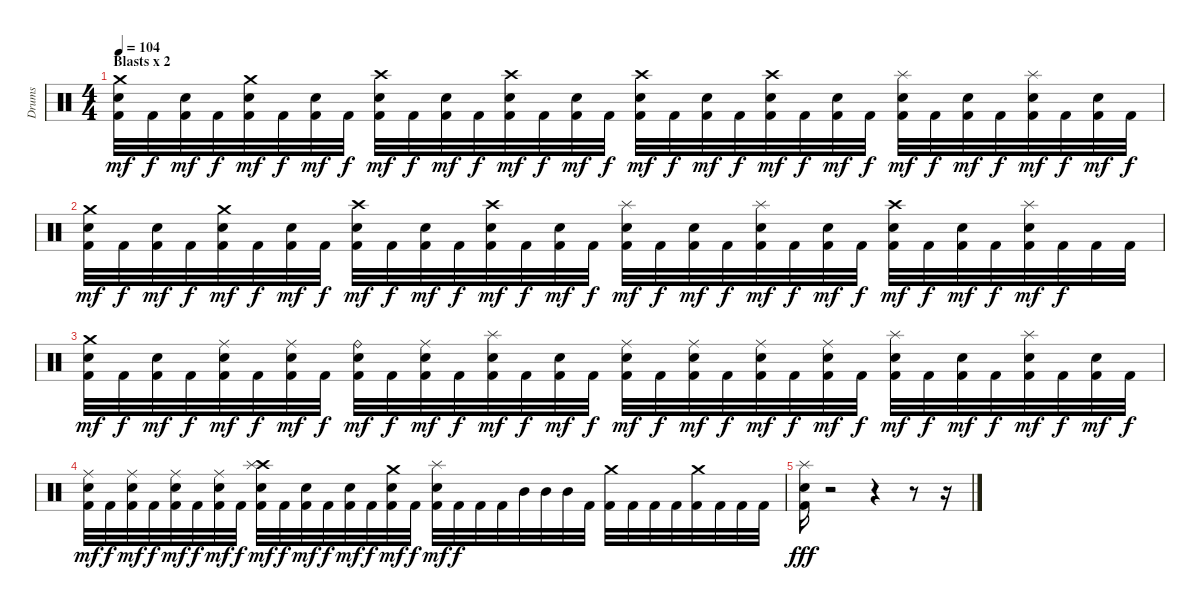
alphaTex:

\track ("Drums" "Drums") {instrument percussion}
\staff {score}
\articulation defaults
\ts (4 4)
\section ("" "Blasts x 2")
\tempo 104
\clef neutral
\ks c
("Crash medium (hit)" "Electric Snare (hit)" "Kick (hit) 2").32{dy mf} "Kick (hit) 2".32{dy f} ("Electric Snare (hit)" "Kick (hit) 2").32{dy mf} "Kick (hit) 2".32{dy f} ("Crash medium (hit)" "Electric Snare (hit)" "Kick (hit) 2").32{dy mf} "Kick (hit) 2".32{dy f} ("Electric Snare (hit)" "Kick (hit) 2").32{dy mf} "Kick (hit) 2".32{dy f} ("Crash high (hit)" "Electric Snare (hit)" "Kick (hit) 2").32{dy mf} "Kick (hit) 2".32{dy f} ("Electric Snare (hit)" "Kick (hit) 2").32{dy mf} "Kick (hit) 2".32{dy f} ("Crash high (hit)" "Electric Snare (hit)" "Kick (hit) 2").32{dy mf} "Kick (hit) 2".32{dy f} ("Electric Snare (hit)" "Kick (hit) 2").32{dy mf} "Kick (hit) 2".32{dy f} ("Crash high (hit)" "Electric Snare (hit)" "Kick (hit) 2").32{dy mf} "Kick (hit) 2".32{dy f} ("Electric Snare (hit)" "Kick (hit) 2").32{dy mf} "Kick (hit) 2".32{dy f} ("Crash high (hit)" "Electric Snare (hit)" "Kick (hit) 2").32{dy mf} "Kick (hit) 2".32{dy f} ("Electric Snare (hit)" "Kick (hit) 2").32{dy mf} "Kick (hit) 2".32{dy f} ("Splash (hit)" "Electric Snare (hit)" "Kick (hit) 2").32{dy mf} "Kick (hit) 2".32{dy f} ("Electric Snare (hit)" "Kick (hit) 2").32{dy mf} "Kick (hit) 2".32{dy f} ("Splash (hit)" "Electric Snare (hit)" "Kick (hit) 2").32{dy mf} "Kick (hit) 2".32{dy f} ("Electric Snare (hit)" "Kick (hit) 2").32{dy mf} "Kick (hit) 2".32{dy f} |
("Crash medium (hit)" "Electric Snare (hit)" "Kick (hit) 2").32{dy mf} "Kick (hit) 2".32{dy f} ("Electric Snare (hit)" "Kick (hit) 2").32{dy mf} "Kick (hit) 2".32{dy f} ("Crash medium (hit)" "Electric Snare (hit)" "Kick (hit) 2").32{dy mf} "Kick (hit) 2".32{dy f} ("Electric Snare (hit)" "Kick (hit) 2").32{dy mf} "Kick (hit) 2".32{dy f} ("Crash high (hit)" "Electric Snare (hit)" "Kick (hit) 2").32{dy mf} "Kick (hit) 2".32{dy f} ("Electric Snare (hit)" "Kick (hit) 2").32{dy mf} "Kick (hit) 2".32{dy f} ("Crash high (hit)" "Electric Snare (hit)" "Kick (hit) 2").32{dy mf} "Kick (hit) 2".32{dy f} ("Electric Snare (hit)" "Kick (hit) 2").32{dy mf} "Kick (hit) 2".32{dy f} ("Splash (hit)" "Electric Snare (hit)" "Kick (hit) 2").32{dy mf} "Kick (hit) 2".32{dy f} ("Electric Snare (hit)" "Kick (hit) 2").32{dy mf} "Kick (hit) 2".32{dy f} ("Splash (hit)" "Electric Snare (hit)" "Kick (hit) 2").32{dy mf} "Kick (hit) 2".32{dy f} ("Electric Snare (hit)" "Kick (hit) 2").32{dy mf} "Kick (hit) 2".32{dy f} ("Crash high (hit)" "Electric Snare (hit)" "Kick (hit) 2").32{dy mf} "Kick (hit) 2".32{dy f} ("Electric Snare (hit)" "Kick (hit) 2").32{dy mf} "Kick (hit) 2".32{dy f} ("Splash (hit)" "Electric Snare (hit)" "Kick (hit) 2").32{dy mf} "Kick (hit) 2".32{dy f} "Kick (hit) 2".32 "Kick (hit) 2".32 |
("Crash medium (hit)" "Electric Snare (hit)" "Kick (hit) 2").32{dy mf} "Kick (hit) 2".32{dy f} ("Electric Snare (hit)" "Kick (hit) 2").32{dy mf} "Kick (hit) 2".32{dy f} ("Ride (middle)" "Electric Snare (hit)" "Kick (hit) 2").32{dy mf} "Kick (hit) 2".32{dy f} ("Ride (middle)" "Electric Snare (hit)" "Kick (hit) 2").32{dy mf} "Kick (hit) 2".32{dy f} ("Ride (bell)" "Electric Snare (hit)" "Kick (hit) 2").32{dy mf} "Kick (hit) 2".32{dy f} ("Ride (middle)" "Electric Snare (hit)" "Kick (hit) 2").32{dy mf} "Kick (hit) 2".32{dy f} ("Splash (hit)" "Electric Snare (hit)" "Kick (hit) 2").32{dy mf} "Kick (hit) 2".32{dy f} ("Electric Snare (hit)" "Kick (hit) 2").32{dy mf} "Kick (hit) 2".32{dy f} ("Ride (middle)" "Electric Snare (hit)" "Kick (hit) 2").32{dy mf} "Kick (hit) 2".32{dy f} ("Ride (middle)" "Electric Snare (hit)" "Kick (hit) 2").32{dy mf} "Kick (hit) 2".32{dy f} ("Ride (middle)" "Electric Snare (hit)" "Kick (hit) 2").32{dy mf} "Kick (hit) 2".32{dy f} ("Ride (middle)" "Electric Snare (hit)" "Kick (hit) 2").32{dy mf} "Kick (hit) 2".32{dy f} ("Splash (hit)" "Electric Snare (hit)" "Kick (hit) 2").32{dy mf} "Kick (hit) 2".32{dy f} ("Electric Snare (hit)" "Kick (hit) 2").32{dy mf} "Kick (hit) 2".32{dy f} ("Splash (hit)" "Electric Snare (hit)" "Kick (hit) 2").32{dy mf} "Kick (hit) 2".32{dy f} ("Electric Snare (hit)" "Kick (hit) 2").32{dy mf} "Kick (hit) 2".32{dy f} |
("Ride (middle)" "Electric Snare (hit)" "Kick (hit) 2").32{dy mf} "Kick (hit) 2".32{dy f} ("Ride (middle)" "Electric Snare (hit)" "Kick (hit) 2").32{dy mf} "Kick (hit) 2".32{dy f} ("Ride (middle)" "Electric Snare (hit)" "Kick (hit) 2").32{dy mf} "Kick (hit) 2".32{dy f} ("Ride (middle)" "Electric Snare (hit)" "Kick (hit) 2").32{dy mf} "Kick (hit) 2".32{dy f} ("Crash high (hit)" "Splash (hit)" "Electric Snare (hit)" "Kick (hit) 2").32{dy mf} "Kick (hit) 2".32{dy f} ("Electric Snare (hit)" "Kick (hit) 2").32{dy mf} "Kick (hit) 2".32{dy f} ("Electric Snare (hit)" "Kick (hit) 2").32{dy mf} "Kick (hit) 2".32{dy f} ("Crash medium (hit)" "Electric Snare (hit)" "Kick (hit) 2").32{dy mf} "Kick (hit) 2".32{dy f} ("Splash (hit)" "Electric Snare (hit)" "Kick (hit) 2").32{dy mf} "Kick (hit) 2".32{dy f} "Kick (hit) 2".32 "Kick (hit) 2".32 "Mid Tom (hit)".32 "Mid Tom (hit)".32 "Mid Tom (hit)".32 "Kick (hit) 2".32 ("Crash medium (hit)" "Kick (hit) 2").32 "Kick (hit) 2".32 "Kick (hit) 2".32 "Kick (hit) 2".32 ("Crash medium (hit)" "Kick (hit) 2").32 "Kick (hit) 2".32 "Kick (hit) 2".32 "Kick (hit) 2".32 |
("Splash (hit)" "Electric Snare (hit)" "Kick (hit) 2").16{dy fff} r.2 r.4 r.8 r.16
